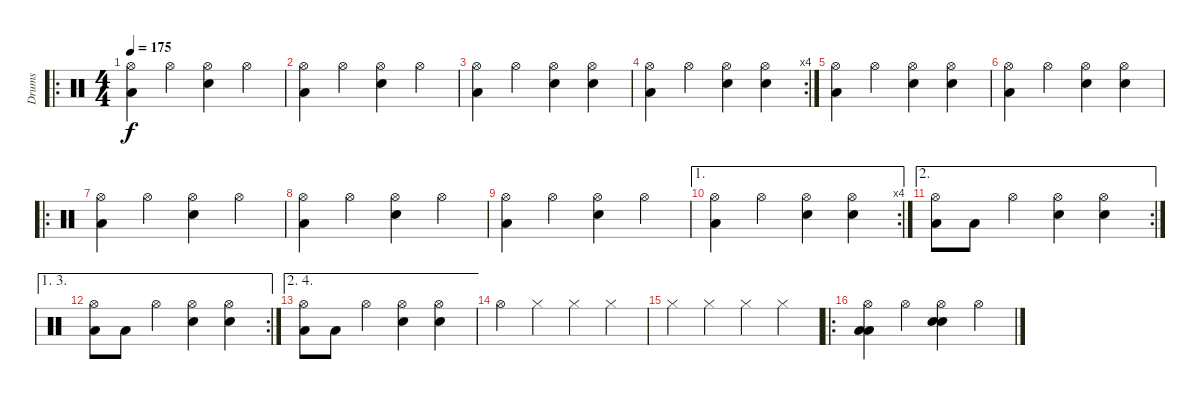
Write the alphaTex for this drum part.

\track ("Drums" "Drums") {instrument percussion}
\staff {score}
\articulation defaults
\ro
\ts (4 4)
\tempo 175
\clef neutral
\ks c
("Low Tom (hit)" "Hi-Hat (open)").4{dy f} "Hi-Hat (open)".4 ("Electric Snare (hit)" "Hi-Hat (open)").4 "Hi-Hat (open)".4 |
("Low Tom (hit)" "Hi-Hat (open)").4 "Hi-Hat (open)".4 ("Electric Snare (hit)" "Hi-Hat (open)").4 "Hi-Hat (open)".4 |
("Low Tom (hit)" "Hi-Hat (open)").4 "Hi-Hat (open)".4 ("Electric Snare (hit)" "Hi-Hat (open)").4 ("Electric Snare (hit)" "Hi-Hat (open)").4 |
\rc 4
("Low Tom (hit)" "Hi-Hat (open)").4 "Hi-Hat (open)".4 ("Electric Snare (hit)" "Hi-Hat (open)").4 ("Electric Snare (hit)" "Hi-Hat (open)").4 |
("Low Tom (hit)" "Hi-Hat (open)").4 "Hi-Hat (open)".4 ("Electric Snare (hit)" "Hi-Hat (open)").4 ("Electric Snare (hit)" "Hi-Hat (open)").4 |
("Low Tom (hit)" "Hi-Hat (open)").4 "Hi-Hat (open)".4 ("Electric Snare (hit)" "Hi-Hat (open)").4 ("Electric Snare (hit)" "Hi-Hat (open)").4 |
\ro
("Low Tom (hit)" "Hi-Hat (open)").4 "Hi-Hat (open)".4 ("Electric Snare (hit)" "Hi-Hat (open)").4 "Hi-Hat (open)".4 |
("Low Tom (hit)" "Hi-Hat (open)").4 "Hi-Hat (open)".4 ("Electric Snare (hit)" "Hi-Hat (open)").4 "Hi-Hat (open)".4 |
("Low Tom (hit)" "Hi-Hat (open)").4 "Hi-Hat (open)".4 ("Electric Snare (hit)" "Hi-Hat (open)").4 "Hi-Hat (open)".4 |
\ae 1
\rc 4
("Low Tom (hit)" "Hi-Hat (open)").4 "Hi-Hat (open)".4 ("Electric Snare (hit)" "Hi-Hat (open)").4 ("Electric Snare (hit)" "Hi-Hat (open)").4 |
\ae 2
\rc 2
("Low Tom (hit)" "Hi-Hat (open)").8 "Low Tom (hit)".8 "Hi-Hat (open)".4 ("Electric Snare (hit)" "Hi-Hat (open)").4 ("Electric Snare (hit)" "Hi-Hat (open)").4 |
\ae (1 3)
\rc 2
("Low Tom (hit)" "Hi-Hat (open)").8 "Low Tom (hit)".8 "Hi-Hat (open)".4 ("Electric Snare (hit)" "Hi-Hat (open)").4 ("Electric Snare (hit)" "Hi-Hat (open)").4 |
\ae (2 4)
("Low Tom (hit)" "Hi-Hat (open)").8 "Low Tom (hit)".8 "Hi-Hat (open)".4 ("Electric Snare (hit)" "Hi-Hat (open)").4 ("Electric Snare (hit)" "Hi-Hat (open)").4 |
"Hi-Hat (open)".4 "Hi-Hat (closed)".4 "Hi-Hat (closed)".4 "Hi-Hat (closed)".4 |
"Hi-Hat (closed)".4 "Hi-Hat (closed)".4 "Hi-Hat (closed)".4 "Hi-Hat (closed)".4 |
\ro
("Low Tom (hit)" "Low Tom (hit)" "Hi-Hat (open)").4 "Hi-Hat (open)".4 ("Electric Snare (hit)" "Electric Snare (hit)" "Hi-Hat (open)").4 "Hi-Hat (open)".4
